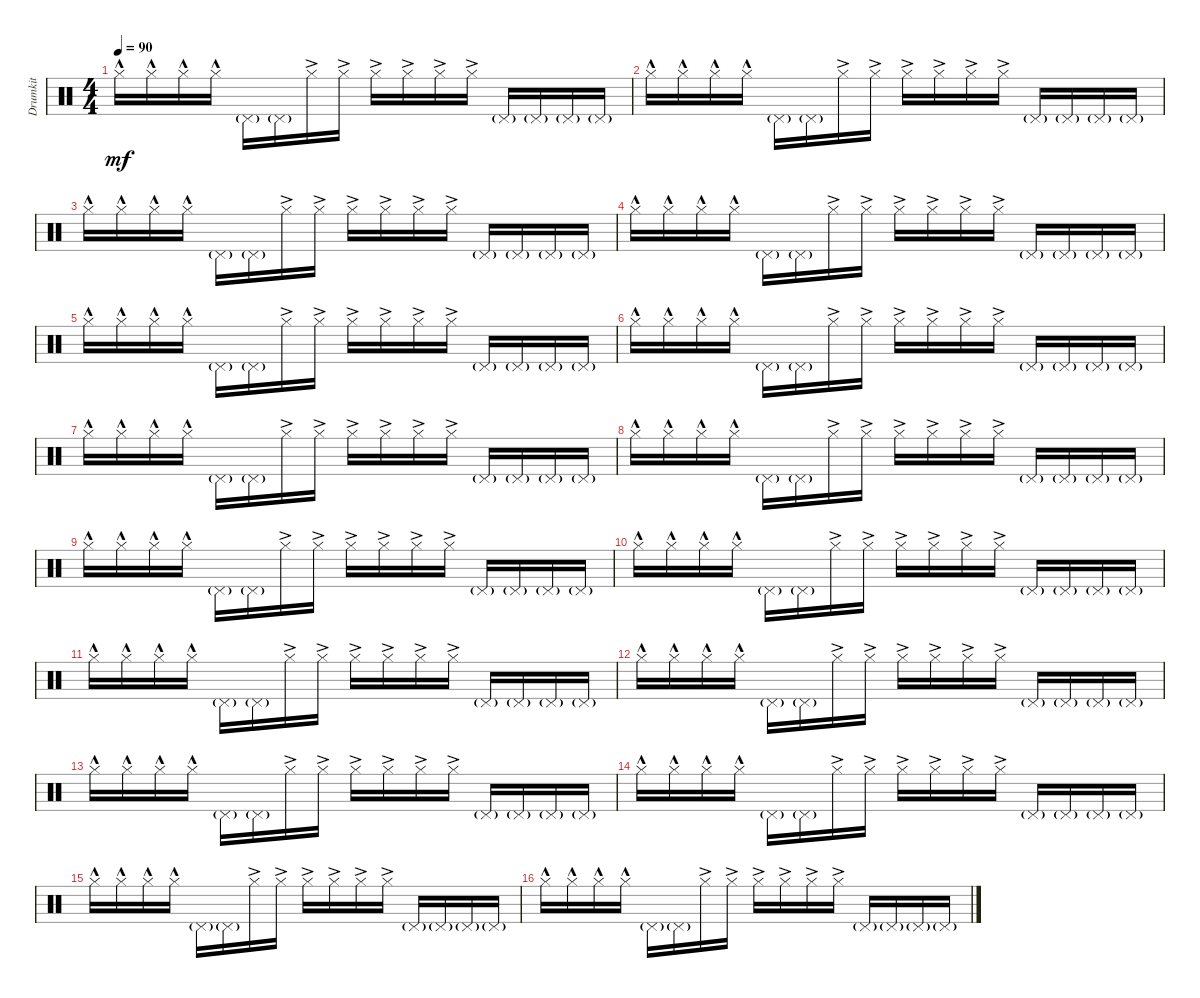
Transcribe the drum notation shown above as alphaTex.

\track ("Drumkit" "Drumkit") {instrument percussion}
\staff {score}
\articulation defaults
\ts (4 4)
\tempo 90
\clef neutral
\ks c "Hi-Hat (closed)"{hac}.16{dy mf} "Hi-Hat (closed)"{hac}.16 "Hi-Hat (closed)"{hac}.16 "Hi-Hat (closed)"{hac}.16 "Pedal Hi-Hat (hit)"{g}.16 "Pedal Hi-Hat (hit)"{g}.16 "Hi-Hat (closed)"{ac}.16 "Hi-Hat (closed)"{ac}.16 "Hi-Hat (closed)"{ac}.16 "Hi-Hat (closed)"{ac}.16 "Hi-Hat (closed)"{ac}.16 "Hi-Hat (closed)"{ac}.16 "Pedal Hi-Hat (hit)"{g}.16 "Pedal Hi-Hat (hit)"{g}.16 "Pedal Hi-Hat (hit)"{g}.16 "Pedal Hi-Hat (hit)"{g}.16
|
"Hi-Hat (closed)"{hac}.16 "Hi-Hat (closed)"{hac}.16 "Hi-Hat (closed)"{hac}.16 "Hi-Hat (closed)"{hac}.16 "Pedal Hi-Hat (hit)"{g}.16 "Pedal Hi-Hat (hit)"{g}.16 "Hi-Hat (closed)"{ac}.16 "Hi-Hat (closed)"{ac}.16 "Hi-Hat (closed)"{ac}.16 "Hi-Hat (closed)"{ac}.16 "Hi-Hat (closed)"{ac}.16 "Hi-Hat (closed)"{ac}.16 "Pedal Hi-Hat (hit)"{g}.16 "Pedal Hi-Hat (hit)"{g}.16 "Pedal Hi-Hat (hit)"{g}.16 "Pedal Hi-Hat (hit)"{g}.16 |
"Hi-Hat (closed)"{hac}.16 "Hi-Hat (closed)"{hac}.16 "Hi-Hat (closed)"{hac}.16 "Hi-Hat (closed)"{hac}.16 "Pedal Hi-Hat (hit)"{g}.16 "Pedal Hi-Hat (hit)"{g}.16 "Hi-Hat (closed)"{ac}.16 "Hi-Hat (closed)"{ac}.16 "Hi-Hat (closed)"{ac}.16 "Hi-Hat (closed)"{ac}.16 "Hi-Hat (closed)"{ac}.16 "Hi-Hat (closed)"{ac}.16 "Pedal Hi-Hat (hit)"{g}.16 "Pedal Hi-Hat (hit)"{g}.16 "Pedal Hi-Hat (hit)"{g}.16 "Pedal Hi-Hat (hit)"{g}.16 |
"Hi-Hat (closed)"{hac}.16 "Hi-Hat (closed)"{hac}.16 "Hi-Hat (closed)"{hac}.16 "Hi-Hat (closed)"{hac}.16 "Pedal Hi-Hat (hit)"{g}.16 "Pedal Hi-Hat (hit)"{g}.16 "Hi-Hat (closed)"{ac}.16 "Hi-Hat (closed)"{ac}.16 "Hi-Hat (closed)"{ac}.16 "Hi-Hat (closed)"{ac}.16 "Hi-Hat (closed)"{ac}.16 "Hi-Hat (closed)"{ac}.16 "Pedal Hi-Hat (hit)"{g}.16 "Pedal Hi-Hat (hit)"{g}.16 "Pedal Hi-Hat (hit)"{g}.16 "Pedal Hi-Hat (hit)"{g}.16 |
"Hi-Hat (closed)"{hac}.16 "Hi-Hat (closed)"{hac}.16 "Hi-Hat (closed)"{hac}.16 "Hi-Hat (closed)"{hac}.16 "Pedal Hi-Hat (hit)"{g}.16 "Pedal Hi-Hat (hit)"{g}.16 "Hi-Hat (closed)"{ac}.16 "Hi-Hat (closed)"{ac}.16 "Hi-Hat (closed)"{ac}.16 "Hi-Hat (closed)"{ac}.16 "Hi-Hat (closed)"{ac}.16 "Hi-Hat (closed)"{ac}.16 "Pedal Hi-Hat (hit)"{g}.16 "Pedal Hi-Hat (hit)"{g}.16 "Pedal Hi-Hat (hit)"{g}.16 "Pedal Hi-Hat (hit)"{g}.16 |
"Hi-Hat (closed)"{hac}.16 "Hi-Hat (closed)"{hac}.16 "Hi-Hat (closed)"{hac}.16 "Hi-Hat (closed)"{hac}.16 "Pedal Hi-Hat (hit)"{g}.16 "Pedal Hi-Hat (hit)"{g}.16 "Hi-Hat (closed)"{ac}.16 "Hi-Hat (closed)"{ac}.16 "Hi-Hat (closed)"{ac}.16 "Hi-Hat (closed)"{ac}.16 "Hi-Hat (closed)"{ac}.16 "Hi-Hat (closed)"{ac}.16 "Pedal Hi-Hat (hit)"{g}.16 "Pedal Hi-Hat (hit)"{g}.16 "Pedal Hi-Hat (hit)"{g}.16 "Pedal Hi-Hat (hit)"{g}.16 |
"Hi-Hat (closed)"{hac}.16 "Hi-Hat (closed)"{hac}.16 "Hi-Hat (closed)"{hac}.16 "Hi-Hat (closed)"{hac}.16 "Pedal Hi-Hat (hit)"{g}.16 "Pedal Hi-Hat (hit)"{g}.16 "Hi-Hat (closed)"{ac}.16 "Hi-Hat (closed)"{ac}.16 "Hi-Hat (closed)"{ac}.16 "Hi-Hat (closed)"{ac}.16 "Hi-Hat (closed)"{ac}.16 "Hi-Hat (closed)"{ac}.16 "Pedal Hi-Hat (hit)"{g}.16 "Pedal Hi-Hat (hit)"{g}.16 "Pedal Hi-Hat (hit)"{g}.16 "Pedal Hi-Hat (hit)"{g}.16 |
"Hi-Hat (closed)"{hac}.16 "Hi-Hat (closed)"{hac}.16 "Hi-Hat (closed)"{hac}.16 "Hi-Hat (closed)"{hac}.16 "Pedal Hi-Hat (hit)"{g}.16 "Pedal Hi-Hat (hit)"{g}.16 "Hi-Hat (closed)"{ac}.16 "Hi-Hat (closed)"{ac}.16 "Hi-Hat (closed)"{ac}.16 "Hi-Hat (closed)"{ac}.16 "Hi-Hat (closed)"{ac}.16 "Hi-Hat (closed)"{ac}.16 "Pedal Hi-Hat (hit)"{g}.16 "Pedal Hi-Hat (hit)"{g}.16 "Pedal Hi-Hat (hit)"{g}.16 "Pedal Hi-Hat (hit)"{g}.16 |
"Hi-Hat (closed)"{hac}.16 "Hi-Hat (closed)"{hac}.16 "Hi-Hat (closed)"{hac}.16 "Hi-Hat (closed)"{hac}.16 "Pedal Hi-Hat (hit)"{g}.16 "Pedal Hi-Hat (hit)"{g}.16 "Hi-Hat (closed)"{ac}.16 "Hi-Hat (closed)"{ac}.16 "Hi-Hat (closed)"{ac}.16 "Hi-Hat (closed)"{ac}.16 "Hi-Hat (closed)"{ac}.16 "Hi-Hat (closed)"{ac}.16 "Pedal Hi-Hat (hit)"{g}.16 "Pedal Hi-Hat (hit)"{g}.16 "Pedal Hi-Hat (hit)"{g}.16 "Pedal Hi-Hat (hit)"{g}.16 |
"Hi-Hat (closed)"{hac}.16 "Hi-Hat (closed)"{hac}.16 "Hi-Hat (closed)"{hac}.16 "Hi-Hat (closed)"{hac}.16 "Pedal Hi-Hat (hit)"{g}.16 "Pedal Hi-Hat (hit)"{g}.16 "Hi-Hat (closed)"{ac}.16 "Hi-Hat (closed)"{ac}.16 "Hi-Hat (closed)"{ac}.16 "Hi-Hat (closed)"{ac}.16 "Hi-Hat (closed)"{ac}.16 "Hi-Hat (closed)"{ac}.16 "Pedal Hi-Hat (hit)"{g}.16 "Pedal Hi-Hat (hit)"{g}.16 "Pedal Hi-Hat (hit)"{g}.16 "Pedal Hi-Hat (hit)"{g}.16 |
"Hi-Hat (closed)"{hac}.16 "Hi-Hat (closed)"{hac}.16 "Hi-Hat (closed)"{hac}.16 "Hi-Hat (closed)"{hac}.16 "Pedal Hi-Hat (hit)"{g}.16 "Pedal Hi-Hat (hit)"{g}.16 "Hi-Hat (closed)"{ac}.16 "Hi-Hat (closed)"{ac}.16 "Hi-Hat (closed)"{ac}.16 "Hi-Hat (closed)"{ac}.16 "Hi-Hat (closed)"{ac}.16 "Hi-Hat (closed)"{ac}.16 "Pedal Hi-Hat (hit)"{g}.16 "Pedal Hi-Hat (hit)"{g}.16 "Pedal Hi-Hat (hit)"{g}.16 "Pedal Hi-Hat (hit)"{g}.16 |
"Hi-Hat (closed)"{hac}.16 "Hi-Hat (closed)"{hac}.16 "Hi-Hat (closed)"{hac}.16 "Hi-Hat (closed)"{hac}.16 "Pedal Hi-Hat (hit)"{g}.16 "Pedal Hi-Hat (hit)"{g}.16 "Hi-Hat (closed)"{ac}.16 "Hi-Hat (closed)"{ac}.16 "Hi-Hat (closed)"{ac}.16 "Hi-Hat (closed)"{ac}.16 "Hi-Hat (closed)"{ac}.16 "Hi-Hat (closed)"{ac}.16 "Pedal Hi-Hat (hit)"{g}.16 "Pedal Hi-Hat (hit)"{g}.16 "Pedal Hi-Hat (hit)"{g}.16 "Pedal Hi-Hat (hit)"{g}.16 |
"Hi-Hat (closed)"{hac}.16 "Hi-Hat (closed)"{hac}.16 "Hi-Hat (closed)"{hac}.16 "Hi-Hat (closed)"{hac}.16 "Pedal Hi-Hat (hit)"{g}.16 "Pedal Hi-Hat (hit)"{g}.16 "Hi-Hat (closed)"{ac}.16 "Hi-Hat (closed)"{ac}.16 "Hi-Hat (closed)"{ac}.16 "Hi-Hat (closed)"{ac}.16 "Hi-Hat (closed)"{ac}.16 "Hi-Hat (closed)"{ac}.16 "Pedal Hi-Hat (hit)"{g}.16 "Pedal Hi-Hat (hit)"{g}.16 "Pedal Hi-Hat (hit)"{g}.16 "Pedal Hi-Hat (hit)"{g}.16 |
"Hi-Hat (closed)"{hac}.16 "Hi-Hat (closed)"{hac}.16 "Hi-Hat (closed)"{hac}.16 "Hi-Hat (closed)"{hac}.16 "Pedal Hi-Hat (hit)"{g}.16 "Pedal Hi-Hat (hit)"{g}.16 "Hi-Hat (closed)"{ac}.16 "Hi-Hat (closed)"{ac}.16 "Hi-Hat (closed)"{ac}.16 "Hi-Hat (closed)"{ac}.16 "Hi-Hat (closed)"{ac}.16 "Hi-Hat (closed)"{ac}.16 "Pedal Hi-Hat (hit)"{g}.16 "Pedal Hi-Hat (hit)"{g}.16 "Pedal Hi-Hat (hit)"{g}.16 "Pedal Hi-Hat (hit)"{g}.16 |
"Hi-Hat (closed)"{hac}.16 "Hi-Hat (closed)"{hac}.16 "Hi-Hat (closed)"{hac}.16 "Hi-Hat (closed)"{hac}.16 "Pedal Hi-Hat (hit)"{g}.16 "Pedal Hi-Hat (hit)"{g}.16 "Hi-Hat (closed)"{ac}.16 "Hi-Hat (closed)"{ac}.16 "Hi-Hat (closed)"{ac}.16 "Hi-Hat (closed)"{ac}.16 "Hi-Hat (closed)"{ac}.16 "Hi-Hat (closed)"{ac}.16 "Pedal Hi-Hat (hit)"{g}.16 "Pedal Hi-Hat (hit)"{g}.16 "Pedal Hi-Hat (hit)"{g}.16 "Pedal Hi-Hat (hit)"{g}.16 |
"Hi-Hat (closed)"{hac}.16 "Hi-Hat (closed)"{hac}.16 "Hi-Hat (closed)"{hac}.16 "Hi-Hat (closed)"{hac}.16 "Pedal Hi-Hat (hit)"{g}.16 "Pedal Hi-Hat (hit)"{g}.16 "Hi-Hat (closed)"{ac}.16 "Hi-Hat (closed)"{ac}.16 "Hi-Hat (closed)"{ac}.16 "Hi-Hat (closed)"{ac}.16 "Hi-Hat (closed)"{ac}.16 "Hi-Hat (closed)"{ac}.16 "Pedal Hi-Hat (hit)"{g}.16 "Pedal Hi-Hat (hit)"{g}.16 "Pedal Hi-Hat (hit)"{g}.16 "Pedal Hi-Hat (hit)"{g}.16
